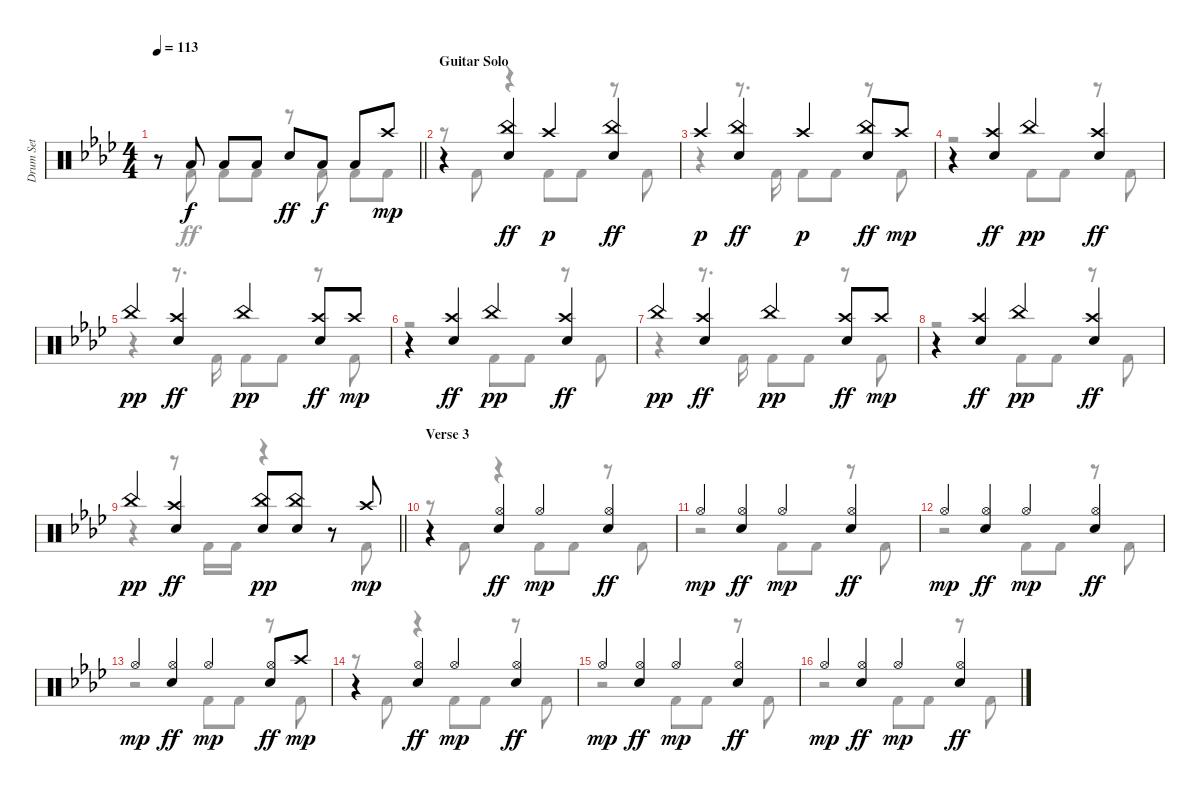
\track ("Drum Set" "Drum Set") {instrument percussion}
\staff {score}
\articulation defaults
\voice
\ts (4 4)
\tempo 113
\clef neutral
\barLineRight lightlight
\ks fminor
r.8{dy mp} "Low Tom (hit)".8{dy f} "Low Tom (hit)".8 "Low Tom (hit)".8 "Electric Snare (hit)".8{dy ff} "Low Tom (hit)".8{dy f} "Low Tom (hit)".8 "Crash high (hit)".8{dy mp} |
\section ("" "Guitar Solo")
r.4 ("China (hit)" "Electric Snare (hit)").4{dy ff} "Crash high (hit)".4{dy p} ("China (hit)" "Electric Snare (hit)").4{dy ff} |
"Crash high (hit)".4{dy p} ("China (hit)" "Electric Snare (hit)").4{dy ff} "Crash high (hit)".4{dy p} ("China (hit)" "Electric Snare (hit)").8{dy ff} "Crash high (hit)".8{dy mp} |
r.4 ("Crash high (hit)" "Electric Snare (hit)").4{dy ff} "China (hit)".4{dy pp} ("Crash high (hit)" "Electric Snare (hit)").4{dy ff} |
"China (hit)".4{dy pp} ("Crash high (hit)" "Electric Snare (hit)").4{dy ff} "China (hit)".4{dy pp} ("Crash high (hit)" "Electric Snare (hit)").8{dy ff} "Crash high (hit)".8{dy mp} |
r.4 ("Crash high (hit)" "Electric Snare (hit)").4{dy ff} "China (hit)".4{dy pp} ("Crash high (hit)" "Electric Snare (hit)").4{dy ff} |
"China (hit)".4{dy pp} ("Crash high (hit)" "Electric Snare (hit)").4{dy ff} "China (hit)".4{dy pp} ("Crash high (hit)" "Electric Snare (hit)").8{dy ff} "Crash high (hit)".8{dy mp} |
r.4 ("Crash high (hit)" "Electric Snare (hit)").4{dy ff} "China (hit)".4{dy pp} ("Crash high (hit)" "Electric Snare (hit)").4{dy ff} |
\barLineRight lightlight "China (hit)".4{dy pp}
("Crash high (hit)" "Electric Snare (hit)").4{dy ff} ("Electric Snare (hit)" "China (hit)").8{dy pp} ("Electric Snare (hit)" "China (hit)").8 r.8 "Crash high (hit)".8{dy mp} |
\section ("" "Verse 3")
r.4 ("Hi-Hat (open)" "Electric Snare (hit)").4{dy ff} "Hi-Hat (open)".4{dy mp} ("Hi-Hat (open)" "Electric Snare (hit)").4{dy ff} |
"Hi-Hat (open)".4{dy mp} ("Hi-Hat (open)" "Electric Snare (hit)").4{dy ff} "Hi-Hat (open)".4{dy mp} ("Hi-Hat (open)" "Electric Snare (hit)").4{dy ff} |
"Hi-Hat (open)".4{dy mp} ("Hi-Hat (open)" "Electric Snare (hit)").4{dy ff} "Hi-Hat (open)".4{dy mp} ("Hi-Hat (open)" "Electric Snare (hit)").4{dy ff} |
"Hi-Hat (open)".4{dy mp} ("Hi-Hat (open)" "Electric Snare (hit)").4{dy ff} "Hi-Hat (open)".4{dy mp} ("Hi-Hat (open)" "Electric Snare (hit)").8{dy ff} "Crash high (hit)".8{dy mp} |
r.4 ("Hi-Hat (open)" "Electric Snare (hit)").4{dy ff} "Hi-Hat (open)".4{dy mp} ("Hi-Hat (open)" "Electric Snare (hit)").4{dy ff} |
"Hi-Hat (open)".4{dy mp} ("Hi-Hat (open)" "Electric Snare (hit)").4{dy ff} "Hi-Hat (open)".4{dy mp} ("Hi-Hat (open)" "Electric Snare (hit)").4{dy ff} |
"Hi-Hat (open)".4{dy mp} ("Hi-Hat (open)" "Electric Snare (hit)").4{dy ff} "Hi-Hat (open)".4{dy mp} ("Hi-Hat (open)" "Electric Snare (hit)").4{dy ff}
\voice
\clef neutral
\ottava regular
\simile none
\barLineRight lightlight
\ks fminor
r.8{dy ff} "Kick (hit) 2".8 "Kick (hit) 2".8 "Kick (hit) 2".8 r.8 "Kick (hit) 2".8 "Kick (hit) 2".8 "Kick (hit) 2".8 |
r.8 "Kick (hit) 2".8 r.4 "Kick (hit) 2".8 "Kick (hit) 2".8 r.8 "Kick (hit) 2".8 |
r.4 r.8{d} "Kick (hit) 2".16 "Kick (hit) 2".8 "Kick (hit) 2".8 r.8 "Kick (hit) 2".8 |
r.2 "Kick (hit) 2".8 "Kick (hit) 2".8 r.8 "Kick (hit) 2".8 |
r.4 r.8{d} "Kick (hit) 2".16 "Kick (hit) 2".8 "Kick (hit) 2".8 r.8 "Kick (hit) 2".8 |
r.2 "Kick (hit) 2".8 "Kick (hit) 2".8 r.8 "Kick (hit) 2".8 |
r.4 r.8{d} "Kick (hit) 2".16 "Kick (hit) 2".8 "Kick (hit) 2".8 r.8 "Kick (hit) 2".8 |
r.2 "Kick (hit) 2".8 "Kick (hit) 2".8 r.8 "Kick (hit) 2".8 |
\barLineRight lightlight
r.4 r.8 "Kick (hit) 2".16 "Kick (hit) 2".16 r.4 r.8 "Kick (hit) 2".8 |
r.8 "Kick (hit) 2".8 r.4 "Kick (hit) 2".8 "Kick (hit) 2".8 r.8 "Kick (hit) 2".8 |
r.2 "Kick (hit) 2".8 "Kick (hit) 2".8 r.8 "Kick (hit) 2".8 |
r.2 "Kick (hit) 2".8 "Kick (hit) 2".8 r.8 "Kick (hit) 2".8 |
r.2 "Kick (hit) 2".8 "Kick (hit) 2".8 r.8 "Kick (hit) 2".8 |
r.8 "Kick (hit) 2".8 r.4 "Kick (hit) 2".8 "Kick (hit) 2".8 r.8 "Kick (hit) 2".8 |
r.2 "Kick (hit) 2".8 "Kick (hit) 2".8 r.8 "Kick (hit) 2".8 |
r.2 "Kick (hit) 2".8 "Kick (hit) 2".8 r.8 "Kick (hit) 2".8
